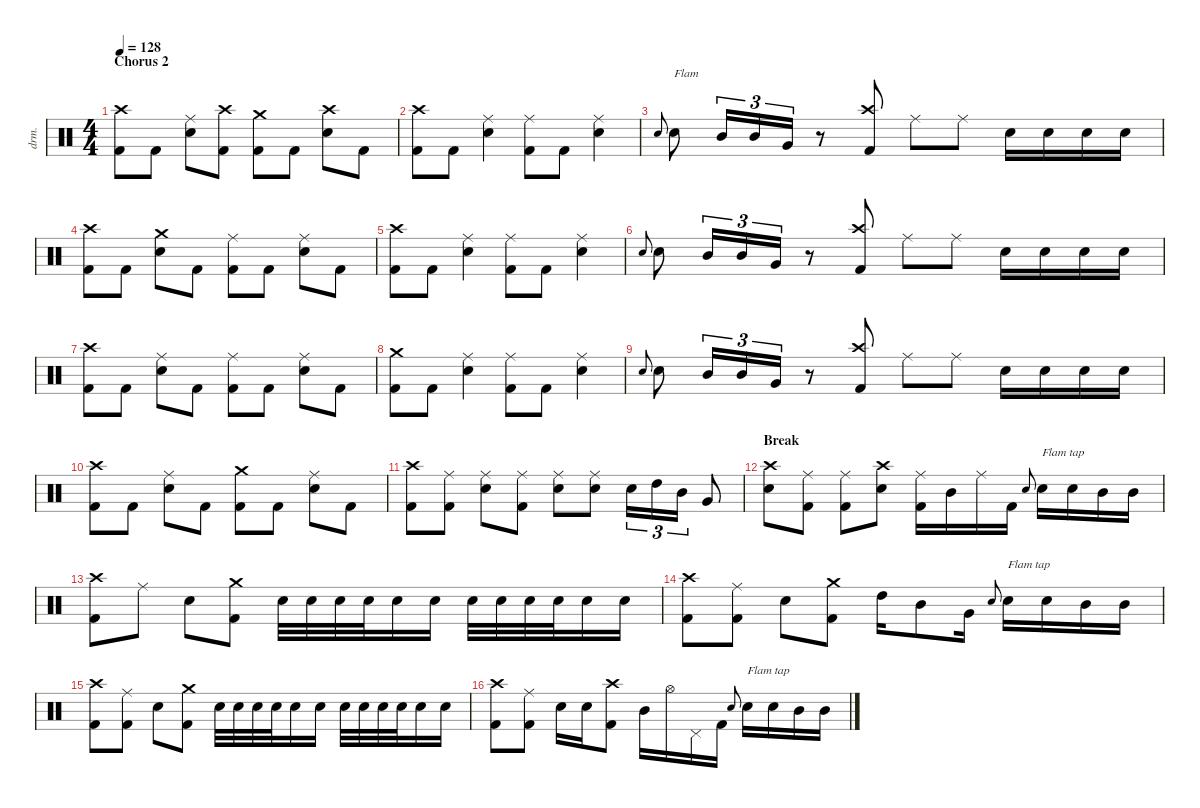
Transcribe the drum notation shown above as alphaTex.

\defaultSystemsLayout 4
\hideDynamics
\bracketExtendMode nobrackets
\otherSystemsTrackNameOrientation horizontal
\track ("Jimmy Chamberlin" "drm.") {instrument percussion}
\staff {score}
\articulation defaults
\ts (4 4)
\section ("" "Chorus 2")
\tempo 128
\clef neutral
\ks c
("Crash high (hit)" "Kick (hit) 2").8{dy mf beam Down} "Kick (hit) 2".8{beam Down} ("Ride (middle)" "Snare (hit) 2").8{beam Down} ("Kick (hit) 2" "Crash high (hit)").8{beam Down} ("Crash medium (hit)" "Kick (hit) 2").8{beam Down} "Kick (hit) 2".8{beam Down} ("Crash high (hit)" "Snare (hit) 2").8{beam Down} "Kick (hit) 2".8{beam Down} |
("Kick (hit) 2" "Crash high (hit)").8{beam Down} "Kick (hit) 2".8{beam Down} ("Ride (middle)" "Snare (hit) 2").4{beam Down} ("Kick (hit) 2" "Ride (middle)").8{beam Down} "Kick (hit) 2".8{beam Down} ("Ride (middle)" "Snare (hit) 2").4{beam Down} |
"Snare (hit) 2".8{gr onbeat beam Up} "Snare (hit) 2".8{txt "Flam" beam Down} "Mid Tom (hit)".16{tu (3 2) beam Up} "Mid Tom (hit)".16{tu (3 2) beam Up} "Very Low Tom (hit)".16{tu (3 2) beam Up} r.8{beam Up} ("Kick (hit) 2" "Crash high (hit)").8{beam Down} "Ride (middle)".8{beam Down} "Ride (middle)".8{beam Down} "Snare (hit) 2".16{beam Down} "Snare (hit) 2".16{beam Down} "Snare (hit) 2".16{beam Down} "Snare (hit) 2".16{beam Down} |
("Kick (hit) 2" "Crash high (hit)").8{beam Down} "Kick (hit) 2".8{beam Down} ("Crash medium (hit)" "Snare (hit) 2").8{beam Down} "Kick (hit) 2".8{beam Down} ("Ride (middle)" "Kick (hit) 2").8{beam Down} "Kick (hit) 2".8{beam Down} ("Ride (middle)" "Snare (hit) 2").8{beam Down} "Kick (hit) 2".8{beam Down} |
("Crash high (hit)" "Kick (hit) 2").8{beam Down} "Kick (hit) 2".8{beam Down} ("Ride (middle)" "Snare (hit) 2").4{beam Down} ("Ride (middle)" "Kick (hit) 2").8{beam Down} "Kick (hit) 2".8{beam Down} ("Ride (middle)" "Snare (hit) 2").4{beam Down} |
"Snare (hit) 2".8{gr onbeat beam Up} "Snare (hit) 2".8{beam Down} "Mid Tom (hit)".16{tu (3 2) beam Up} "Mid Tom (hit)".16{tu (3 2) beam Up} "Very Low Tom (hit)".16{tu (3 2) beam Up} r.8{beam Up} ("Kick (hit) 2" "Crash high (hit)").8{beam Down} "Ride (middle)".8{beam Down} "Ride (middle)".8{beam Down} "Snare (hit) 2".16{beam Down} "Snare (hit) 2".16{beam Down} "Snare (hit) 2".16{beam Down} "Snare (hit) 2".16{beam Down} |
("Crash high (hit)" "Kick (hit) 2").8{beam Down} "Kick (hit) 2".8{beam Down} ("Ride (middle)" "Snare (hit) 2").8{beam Down} "Kick (hit) 2".8{beam Down} ("Kick (hit) 2" "Ride (middle)").8{beam Down} "Kick (hit) 2".8{beam Down} ("Snare (hit) 2" "Ride (middle)").8{beam Down} "Kick (hit) 2".8{beam Down} |
("Crash medium (hit)" "Kick (hit) 2").8{beam Down} "Kick (hit) 2".8{beam Down} ("Ride (middle)" "Snare (hit) 2").4{beam Down} ("Ride (middle)" "Kick (hit) 2").8{beam Down} "Kick (hit) 2".8{beam Down} ("Ride (middle)" "Snare (hit) 2").4{beam Down} |
"Snare (hit) 2".8{gr onbeat beam Up} "Snare (hit) 2".8{beam Down} "Mid Tom (hit)".16{tu (3 2) beam Up} "Mid Tom (hit)".16{tu (3 2) beam Up} "Very Low Tom (hit)".16{tu (3 2) beam Up} r.8{beam Up} ("Kick (hit) 2" "Crash high (hit)").8{beam Down} "Ride (middle)".8{beam Down} "Ride (middle)".8{beam Down} "Snare (hit) 2".16{beam Down} "Snare (hit) 2".16{beam Down} "Snare (hit) 2".16{beam Down} "Snare (hit) 2".16{beam Down} |
("Kick (hit) 2" "Crash high (hit)").8{beam Down} "Kick (hit) 2".8{beam Down} ("Ride (middle)" "Snare (hit) 2").8{beam Down} "Kick (hit) 2".8{beam Down} ("Kick (hit) 2" "Crash medium (hit)").8{beam Down} "Kick (hit) 2".8{beam Down} ("Ride (middle)" "Snare (hit) 2").8{beam Down} "Kick (hit) 2".8{beam Down} |
("Kick (hit) 2" "Crash high (hit)").8{beam Down} ("Ride (middle)" "Kick (hit) 2").8{beam Down} ("Ride (middle)" "Snare (hit) 2").8{beam Down} ("Kick (hit) 2" "Ride (middle)").8{beam Down} ("Ride (middle)" "Snare (hit) 2").8{beam Down} ("Ride (middle)" "Snare (hit) 2").8{beam Down} "Snare (hit) 2".16{tu (3 2) beam Down} "High Tom (hit)".16{tu (3 2) beam Down} "Mid Tom (hit)".16{tu (3 2) beam Down} "Very Low Tom (hit)".8{beam Up} |
\section ("" "Break")
("Crash high (hit)" "Snare (hit) 2").8{beam Down} ("Ride (middle)" "Kick (hit) 2").8{beam Down} ("Kick (hit) 2" "Ride (middle)").8{beam Down} ("Crash high (hit)" "Snare (hit) 2").8{beam Down} ("Kick (hit) 2" "Ride (middle)").16{beam Down} "Mid Tom (hit)".16{beam Down} "Ride (middle)".16{beam Down} "Kick (hit) 2".16{beam Down} "Snare (hit) 2".8{gr onbeat beam Up} "Snare (hit) 2".16{txt "Flam tap" beam Down} "Snare (hit) 2".16{beam Down} "Mid Tom (hit)".16{beam Down} "Mid Tom (hit)".16{beam Down} |
("Kick (hit) 2" "Crash high (hit)").8{beam Down} "Ride (middle)".8{beam Down} "Snare (hit) 2".8{beam Down} ("Crash medium (hit)" "Kick (hit) 2").8{beam Down} "Snare (hit) 2".32{beam Down} "Snare (hit) 2".32{beam Down} "Snare (hit) 2".32{beam Down} "Snare (hit) 2".32{beam Down} "Snare (hit) 2".16{beam Down} "Snare (hit) 2".16{beam Down} "Snare (hit) 2".32{beam Down} "Snare (hit) 2".32{beam Down} "Snare (hit) 2".32{beam Down} "Snare (hit) 2".32{beam Down} "Snare (hit) 2".16{beam Down} "Snare (hit) 2".16{beam Down} |
("Kick (hit) 2" "Crash high (hit)").8{beam Down} ("Kick (hit) 2" "Ride (middle)").8{beam Down} "Snare (hit) 2".8{beam Down} ("Kick (hit) 2" "Crash medium (hit)").8{beam Down} "High Tom (hit)".16{beam Down} "Mid Tom (hit)".8{beam Down} "Very Low Tom (hit)".16{beam Down} "Snare (hit) 2".8{gr onbeat beam Up} "Snare (hit) 2".16{txt "Flam tap" beam Down} "Snare (hit) 2".16{beam Down} "Mid Tom (hit)".16{beam Down} "Mid Tom (hit)".16{beam Down} |
("Kick (hit) 2" "Crash high (hit)").8{beam Down} ("Kick (hit) 2" "Ride (middle)").8{beam Down} "Snare (hit) 2".8{beam Down} ("Kick (hit) 2" "Crash medium (hit)").8{beam Down} "Snare (hit) 2".32{beam Down} "Snare (hit) 2".32{beam Down} "Snare (hit) 2".32{beam Down} "Snare (hit) 2".32{beam Down} "Snare (hit) 2".16{beam Down} "Snare (hit) 2".16{beam Down} "Snare (hit) 2".32{beam Down} "Snare (hit) 2".32{beam Down} "Snare (hit) 2".32{beam Down} "Snare (hit) 2".32{beam Down} "Snare (hit) 2".16{beam Down} "Snare (hit) 2".16{beam Down} |
("Kick (hit) 2" "Crash high (hit)").8{beam Down} ("Kick (hit) 2" "Ride (middle)").8{beam Down} "Snare (hit) 2".16{beam Down} "Snare (hit) 2".16{beam Down} ("Kick (hit) 2" "Crash high (hit)").8{beam Down} "Mid Tom (hit)".16{beam Down} "Hi-Hat (open)".16{beam Down} "Pedal Hi-Hat (hit)".16{beam Down} "Kick (hit) 2".16{beam Down} "Snare (hit) 2".8{gr onbeat beam Up} "Snare (hit) 2".16{txt "Flam tap" beam Down} "Snare (hit) 2".16{beam Down} "Mid Tom (hit)".16{beam Down} "Mid Tom (hit)".16{beam Down}
